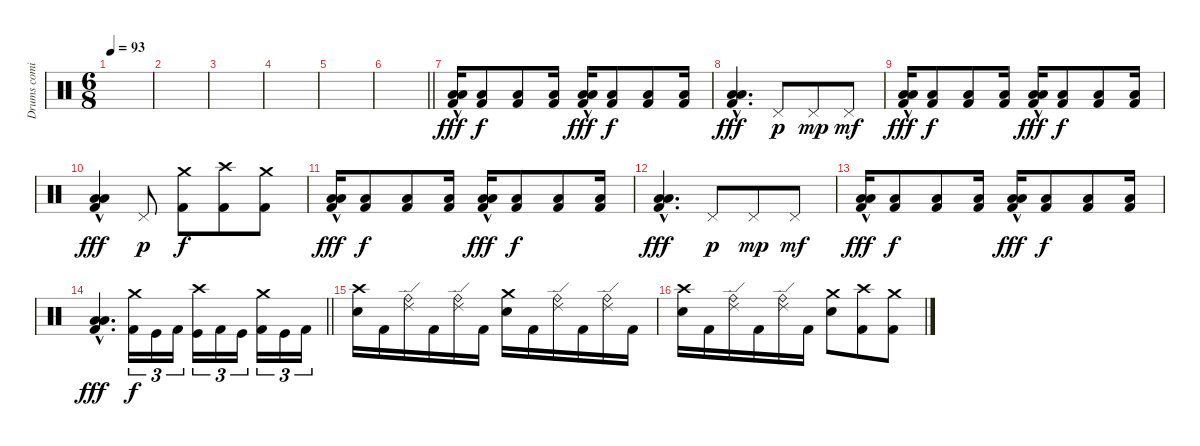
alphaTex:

\track ("Drums coming soon" "Drums comi") {instrument percussion}
\staff {score}
\articulation defaults
\ts (6 8)
\tempo 93
\clef neutral
\ks c
|
|
|
|
|
\barLineRight lightlight
|
\section ("" "")
("Low Tom (hit)"{hac} "Low Floor Tom (hit)"{hac} "Kick (hit) 2"{hac}).16{dy fff} ("Low Floor Tom (hit)" "Kick (hit) 2").8{dy f} ("Low Floor Tom (hit)" "Kick (hit) 2").8 ("Low Floor Tom (hit)" "Kick (hit) 2").16 ("Low Tom (hit)"{hac} "Low Floor Tom (hit)"{hac} "Kick (hit) 2"{hac}).16{dy fff} ("Low Floor Tom (hit)" "Kick (hit) 2").8{dy f} ("Low Floor Tom (hit)" "Kick (hit) 2").8 ("Low Floor Tom (hit)" "Kick (hit) 2").16 |
("Low Tom (hit)"{hac} "Low Floor Tom (hit)"{hac} "Kick (hit) 2"{hac}).4{d dy fff} "Pedal Hi-Hat (hit)".8{dy p} "Pedal Hi-Hat (hit)".8{dy mp} "Pedal Hi-Hat (hit)".8{dy mf} |
("Low Tom (hit)"{hac} "Low Floor Tom (hit)"{hac} "Kick (hit) 2"{hac}).16{dy fff} ("Low Floor Tom (hit)" "Kick (hit) 2").8{dy f} ("Low Floor Tom (hit)" "Kick (hit) 2").8 ("Low Floor Tom (hit)" "Kick (hit) 2").16 ("Low Tom (hit)"{hac} "Low Floor Tom (hit)"{hac} "Kick (hit) 2"{hac}).16{dy fff} ("Low Floor Tom (hit)" "Kick (hit) 2").8{dy f} ("Low Floor Tom (hit)" "Kick (hit) 2").8 ("Low Floor Tom (hit)" "Kick (hit) 2").16 |
("Low Tom (hit)"{hac} "Low Floor Tom (hit)"{hac} "Kick (hit) 2"{hac}).4{dy fff} "Pedal Hi-Hat (hit)".8{dy p} ("Crash medium (hit)" "Kick (hit) 2").8{dy f} ("Crash high (hit)" "Kick (hit) 2").8 ("Crash medium (hit)" "Kick (hit) 2").8 |
("Low Tom (hit)"{hac} "Low Floor Tom (hit)"{hac} "Kick (hit) 2"{hac}).16{dy fff} ("Low Floor Tom (hit)" "Kick (hit) 2").8{dy f} ("Low Floor Tom (hit)" "Kick (hit) 2").8 ("Low Floor Tom (hit)" "Kick (hit) 2").16 ("Low Tom (hit)"{hac} "Low Floor Tom (hit)"{hac} "Kick (hit) 2"{hac}).16{dy fff} ("Low Floor Tom (hit)" "Kick (hit) 2").8{dy f} ("Low Floor Tom (hit)" "Kick (hit) 2").8 ("Low Floor Tom (hit)" "Kick (hit) 2").16 |
("Low Tom (hit)"{hac} "Low Floor Tom (hit)"{hac} "Kick (hit) 2"{hac}).4{d dy fff} "Pedal Hi-Hat (hit)".8{dy p} "Pedal Hi-Hat (hit)".8{dy mp} "Pedal Hi-Hat (hit)".8{dy mf} |
("Low Tom (hit)"{hac} "Low Floor Tom (hit)"{hac} "Kick (hit) 2"{hac}).16{dy fff} ("Low Floor Tom (hit)" "Kick (hit) 2").8{dy f} ("Low Floor Tom (hit)" "Kick (hit) 2").8 ("Low Floor Tom (hit)" "Kick (hit) 2").16 ("Low Tom (hit)"{hac} "Low Floor Tom (hit)"{hac} "Kick (hit) 2"{hac}).16{dy fff} ("Low Floor Tom (hit)" "Kick (hit) 2").8{dy f} ("Low Floor Tom (hit)" "Kick (hit) 2").8 ("Low Floor Tom (hit)" "Kick (hit) 2").16 |
\barLineRight lightlight
("Low Tom (hit)"{hac} "Low Floor Tom (hit)"{hac} "Kick (hit) 2"{hac}).4{d dy fff} ("Crash medium (hit)" "Kick (hit) 2").16{tu (3 2) dy f} "Kick (hit)".16{tu (3 2)} "Kick (hit) 2".16{tu (3 2) beam splitsecondary} ("Crash high (hit)" "Kick (hit)").16{tu (3 2)} "Kick (hit) 2".16{tu (3 2)} "Kick (hit)".16{tu (3 2) beam splitsecondary} ("Crash medium (hit)" "Kick (hit) 2").16{tu (3 2)} "Kick (hit)".16{tu (3 2)} "Kick (hit) 2".16{tu (3 2)} |
\section ("" "")
("Crash high (hit)" "Snare (hit) 2").16 "Kick (hit) 2".16 ("Ride (edge) 2" "Ride (bell)").16 "Kick (hit) 2".16 ("Ride (edge) 2" "Ride (bell)").16 "Kick (hit) 2".16 ("Crash medium (hit)" "Snare (hit) 2").16 "Kick (hit) 2".16 ("Ride (edge) 2" "Ride (bell)").16 "Kick (hit) 2".16 ("Ride (edge) 2" "Ride (bell)").16 "Kick (hit) 2".16 |
("Crash high (hit)" "Snare (hit) 2").16 "Kick (hit) 2".16 ("Ride (edge) 2" "Ride (bell)").16 "Kick (hit) 2".16 ("Ride (edge) 2" "Ride (bell)").16 "Kick (hit) 2".16 ("Crash medium (hit)" "Snare (hit) 2").8 ("Crash high (hit)" "Kick (hit) 2").8 ("Crash medium (hit)" "Kick (hit) 2").8
